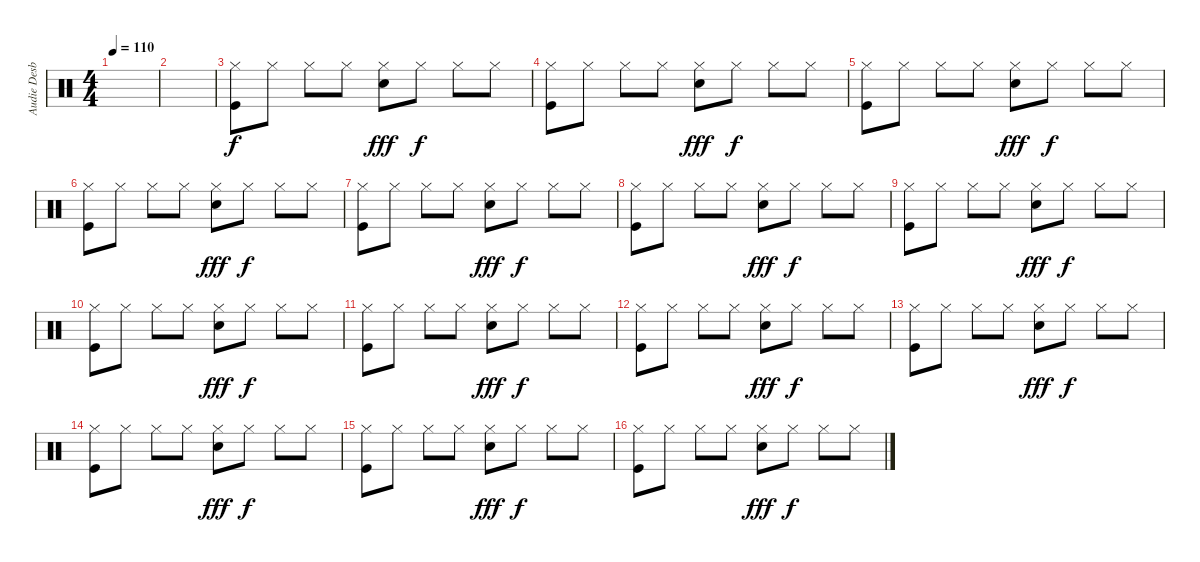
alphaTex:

\track ("Audie Desbrow" "Audie Desb") {instrument percussion}
\staff {score}
\articulation defaults
\ts (4 4)
\tempo 110
\clef neutral
\ks c
|
|
("Hi-Hat (closed)" "Kick (hit)").8 "Hi-Hat (closed)".8 "Hi-Hat (closed)".8 "Hi-Hat (closed)".8 ("Hi-Hat (closed)" "Snare (hit) 2").8{dy fff} "Hi-Hat (closed)".8{dy f} "Hi-Hat (closed)".8 "Hi-Hat (closed)".8 |
("Hi-Hat (closed)" "Kick (hit)").8 "Hi-Hat (closed)".8 "Hi-Hat (closed)".8 "Hi-Hat (closed)".8 ("Hi-Hat (closed)" "Snare (hit) 2").8{dy fff} "Hi-Hat (closed)".8{dy f} "Hi-Hat (closed)".8 "Hi-Hat (closed)".8 |
("Hi-Hat (closed)" "Kick (hit)").8 "Hi-Hat (closed)".8 "Hi-Hat (closed)".8 "Hi-Hat (closed)".8 ("Hi-Hat (closed)" "Snare (hit) 2").8{dy fff} "Hi-Hat (closed)".8{dy f} "Hi-Hat (closed)".8 "Hi-Hat (closed)".8 |
("Hi-Hat (closed)" "Kick (hit)").8 "Hi-Hat (closed)".8 "Hi-Hat (closed)".8 "Hi-Hat (closed)".8 ("Hi-Hat (closed)" "Snare (hit) 2").8{dy fff} "Hi-Hat (closed)".8{dy f} "Hi-Hat (closed)".8 "Hi-Hat (closed)".8 |
("Hi-Hat (closed)" "Kick (hit)").8 "Hi-Hat (closed)".8 "Hi-Hat (closed)".8 "Hi-Hat (closed)".8 ("Hi-Hat (closed)" "Snare (hit) 2").8{dy fff} "Hi-Hat (closed)".8{dy f} "Hi-Hat (closed)".8 "Hi-Hat (closed)".8 |
("Hi-Hat (closed)" "Kick (hit)").8 "Hi-Hat (closed)".8 "Hi-Hat (closed)".8 "Hi-Hat (closed)".8 ("Hi-Hat (closed)" "Snare (hit) 2").8{dy fff} "Hi-Hat (closed)".8{dy f} "Hi-Hat (closed)".8 "Hi-Hat (closed)".8 |
("Hi-Hat (closed)" "Kick (hit)").8 "Hi-Hat (closed)".8 "Hi-Hat (closed)".8 "Hi-Hat (closed)".8 ("Hi-Hat (closed)" "Snare (hit) 2").8{dy fff} "Hi-Hat (closed)".8{dy f} "Hi-Hat (closed)".8 "Hi-Hat (closed)".8 |
("Hi-Hat (closed)" "Kick (hit)").8 "Hi-Hat (closed)".8 "Hi-Hat (closed)".8 "Hi-Hat (closed)".8 ("Hi-Hat (closed)" "Snare (hit) 2").8{dy fff} "Hi-Hat (closed)".8{dy f} "Hi-Hat (closed)".8 "Hi-Hat (closed)".8 |
("Hi-Hat (closed)" "Kick (hit)").8 "Hi-Hat (closed)".8 "Hi-Hat (closed)".8 "Hi-Hat (closed)".8 ("Hi-Hat (closed)" "Snare (hit) 2").8{dy fff} "Hi-Hat (closed)".8{dy f} "Hi-Hat (closed)".8 "Hi-Hat (closed)".8 |
("Hi-Hat (closed)" "Kick (hit)").8 "Hi-Hat (closed)".8 "Hi-Hat (closed)".8 "Hi-Hat (closed)".8 ("Hi-Hat (closed)" "Snare (hit) 2").8{dy fff} "Hi-Hat (closed)".8{dy f} "Hi-Hat (closed)".8 "Hi-Hat (closed)".8 |
("Hi-Hat (closed)" "Kick (hit)").8 "Hi-Hat (closed)".8 "Hi-Hat (closed)".8 "Hi-Hat (closed)".8 ("Hi-Hat (closed)" "Snare (hit) 2").8{dy fff} "Hi-Hat (closed)".8{dy f} "Hi-Hat (closed)".8 "Hi-Hat (closed)".8 |
("Hi-Hat (closed)" "Kick (hit)").8 "Hi-Hat (closed)".8 "Hi-Hat (closed)".8 "Hi-Hat (closed)".8 ("Hi-Hat (closed)" "Snare (hit) 2").8{dy fff} "Hi-Hat (closed)".8{dy f} "Hi-Hat (closed)".8 "Hi-Hat (closed)".8 |
("Hi-Hat (closed)" "Kick (hit)").8 "Hi-Hat (closed)".8 "Hi-Hat (closed)".8 "Hi-Hat (closed)".8 ("Hi-Hat (closed)" "Snare (hit) 2").8{dy fff} "Hi-Hat (closed)".8{dy f} "Hi-Hat (closed)".8 "Hi-Hat (closed)".8 |
("Hi-Hat (closed)" "Kick (hit)").8 "Hi-Hat (closed)".8 "Hi-Hat (closed)".8 "Hi-Hat (closed)".8 ("Hi-Hat (closed)" "Snare (hit) 2").8{dy fff} "Hi-Hat (closed)".8{dy f} "Hi-Hat (closed)".8 "Hi-Hat (closed)".8
